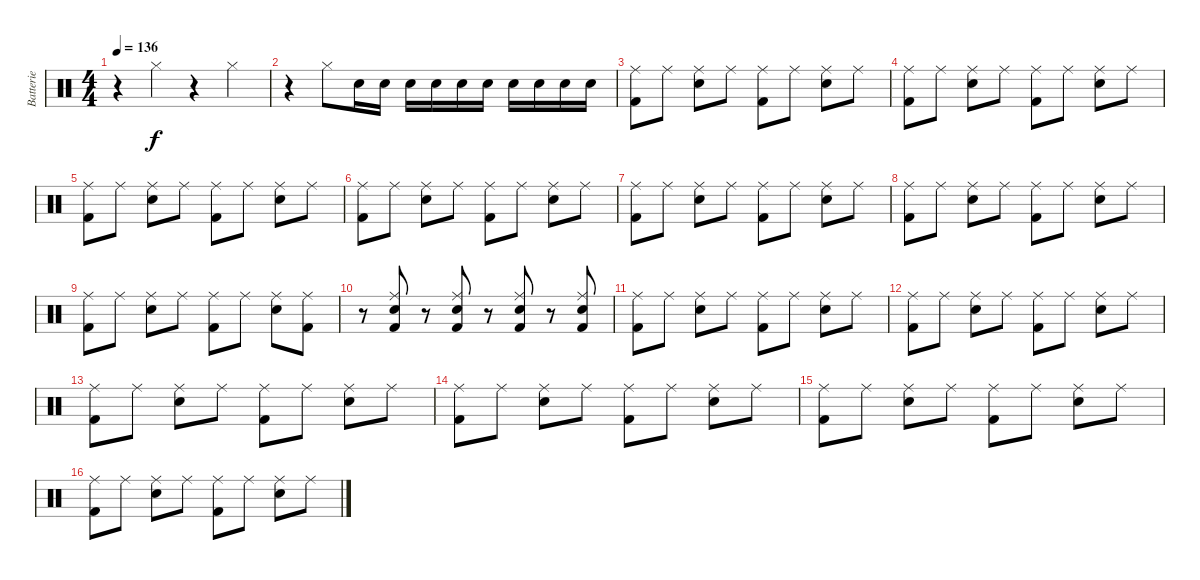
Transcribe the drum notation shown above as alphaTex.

\track ("Batterie" "Batterie") {instrument percussion}
\staff {score}
\articulation defaults
\ts (4 4)
\tempo 136
\clef neutral
\ks c
r.4{dy f} "Hi-Hat (closed)".4 r.4 "Hi-Hat (closed)".4 |
r.4 "Hi-Hat (closed)".8 "Snare (hit) 2".16 "Snare (hit) 2".16 "Snare (hit) 2".16 "Snare (hit) 2".16 "Snare (hit) 2".16 "Snare (hit) 2".16 "Snare (hit) 2".16 "Snare (hit) 2".16 "Snare (hit) 2".16 "Snare (hit) 2".16 |
("Ride (middle)" "Kick (hit) 2").8 "Ride (middle)".8 ("Ride (middle)" "Snare (hit) 2").8 "Ride (middle)".8 ("Ride (middle)" "Kick (hit) 2").8 "Ride (middle)".8 ("Ride (middle)" "Snare (hit) 2").8 "Ride (middle)".8 |
("Ride (middle)" "Kick (hit) 2").8 "Ride (middle)".8 ("Ride (middle)" "Snare (hit) 2").8 "Ride (middle)".8 ("Ride (middle)" "Kick (hit) 2").8 "Ride (middle)".8 ("Ride (middle)" "Snare (hit) 2").8 "Ride (middle)".8 |
("Ride (middle)" "Kick (hit) 2").8 "Ride (middle)".8 ("Ride (middle)" "Snare (hit) 2").8 "Ride (middle)".8 ("Ride (middle)" "Kick (hit) 2").8 "Ride (middle)".8 ("Ride (middle)" "Snare (hit) 2").8 "Ride (middle)".8 |
("Ride (middle)" "Kick (hit) 2").8 "Ride (middle)".8 ("Ride (middle)" "Snare (hit) 2").8 "Ride (middle)".8 ("Ride (middle)" "Kick (hit) 2").8 "Ride (middle)".8 ("Ride (middle)" "Snare (hit) 2").8 "Ride (middle)".8 |
("Ride (middle)" "Kick (hit) 2").8 "Ride (middle)".8 ("Ride (middle)" "Snare (hit) 2").8 "Ride (middle)".8 ("Ride (middle)" "Kick (hit) 2").8 "Ride (middle)".8 ("Ride (middle)" "Snare (hit) 2").8 "Ride (middle)".8 |
("Ride (middle)" "Kick (hit) 2").8 "Ride (middle)".8 ("Ride (middle)" "Snare (hit) 2").8 "Ride (middle)".8 ("Ride (middle)" "Kick (hit) 2").8 "Ride (middle)".8 ("Ride (middle)" "Snare (hit) 2").8 "Ride (middle)".8 |
("Ride (middle)" "Kick (hit) 2").8 "Ride (middle)".8 ("Ride (middle)" "Snare (hit) 2").8 "Ride (middle)".8 ("Ride (middle)" "Kick (hit) 2").8 "Ride (middle)".8 ("Ride (middle)" "Snare (hit) 2").8 ("Ride (middle)" "Kick (hit) 2").8 |
r.8 ("Ride (middle)" "Snare (hit) 2" "Kick (hit) 2").8 r.8 ("Ride (middle)" "Snare (hit) 2" "Kick (hit) 2").8 r.8 ("Ride (middle)" "Snare (hit) 2" "Kick (hit) 2").8 r.8 ("Ride (middle)" "Snare (hit) 2" "Kick (hit) 2").8 |
("Ride (middle)" "Kick (hit) 2").8 "Ride (middle)".8 ("Ride (middle)" "Snare (hit) 2").8 "Ride (middle)".8 ("Ride (middle)" "Kick (hit) 2").8 "Ride (middle)".8 ("Ride (middle)" "Snare (hit) 2").8 "Ride (middle)".8 |
("Ride (middle)" "Kick (hit) 2").8 "Ride (middle)".8 ("Ride (middle)" "Snare (hit) 2").8 "Ride (middle)".8 ("Ride (middle)" "Kick (hit) 2").8 "Ride (middle)".8 ("Ride (middle)" "Snare (hit) 2").8 "Ride (middle)".8 |
("Ride (middle)" "Kick (hit) 2").8 "Ride (middle)".8 ("Ride (middle)" "Snare (hit) 2").8 "Ride (middle)".8 ("Ride (middle)" "Kick (hit) 2").8 "Ride (middle)".8 ("Ride (middle)" "Snare (hit) 2").8 "Ride (middle)".8 |
("Ride (middle)" "Kick (hit) 2").8 "Ride (middle)".8 ("Ride (middle)" "Snare (hit) 2").8 "Ride (middle)".8 ("Ride (middle)" "Kick (hit) 2").8 "Ride (middle)".8 ("Ride (middle)" "Snare (hit) 2").8 "Ride (middle)".8 |
("Ride (middle)" "Kick (hit) 2").8 "Ride (middle)".8 ("Ride (middle)" "Snare (hit) 2").8 "Ride (middle)".8 ("Ride (middle)" "Kick (hit) 2").8 "Ride (middle)".8 ("Ride (middle)" "Snare (hit) 2").8 "Ride (middle)".8 |
("Ride (middle)" "Kick (hit) 2").8 "Ride (middle)".8 ("Ride (middle)" "Snare (hit) 2").8 "Ride (middle)".8 ("Ride (middle)" "Kick (hit) 2").8 "Ride (middle)".8 ("Ride (middle)" "Snare (hit) 2").8 "Ride (middle)".8
